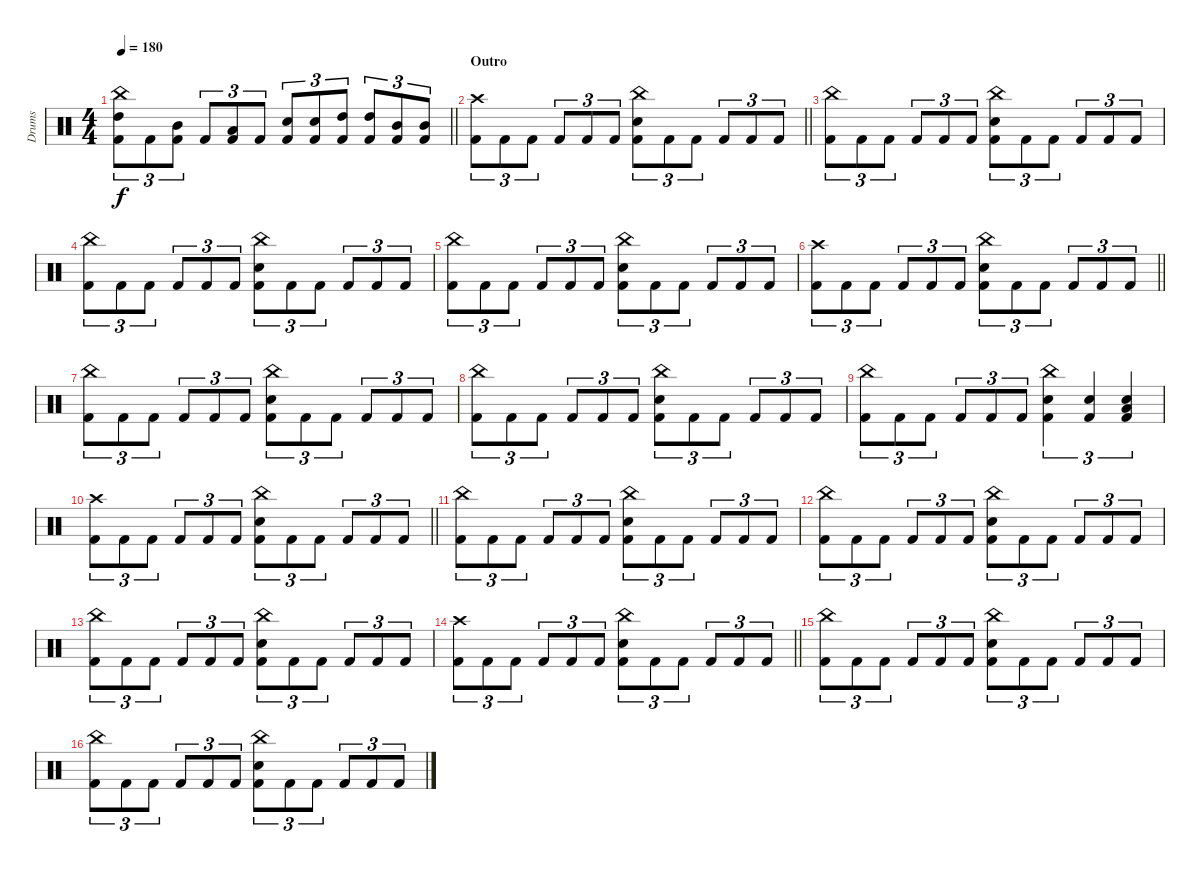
\track ("Drums" "Drums") {instrument percussion}
\staff {score}
\articulation defaults
\ts (4 4)
\tempo 180
\clef neutral
\barLineRight lightlight
\ks c
("China (hit)" "High Tom (hit)" "Kick (hit) 2").8{tu (3 2) dy f} "Kick (hit) 2".8{tu (3 2)} ("Mid Tom (hit)" "Kick (hit) 2").8{tu (3 2)} "Kick (hit) 2".8{tu (3 2)} ("Low Tom (hit)" "Kick (hit) 2").8{tu (3 2)} "Kick (hit) 2".8{tu (3 2)} ("Snare (hit) 2" "Kick (hit) 2").8{tu (3 2)} ("Snare (hit) 2" "Kick (hit) 2").8{tu (3 2)} ("High Tom (hit)" "Kick (hit) 2").8{tu (3 2)} ("High Tom (hit)" "Kick (hit) 2").8{tu (3 2)} ("Mid Tom (hit)" "Kick (hit) 2").8{tu (3 2)} ("Mid Tom (hit)" "Kick (hit) 2").8{tu (3 2)} |
\section ("" "Outro")
\barLineRight lightlight
("Crash high (hit)" "Kick (hit) 2").8{tu (3 2)} "Kick (hit) 2".8{tu (3 2)} "Kick (hit) 2".8{tu (3 2)} "Kick (hit) 2".8{tu (3 2)} "Kick (hit) 2".8{tu (3 2)} "Kick (hit) 2".8{tu (3 2)} ("China (hit)" "Snare (hit) 2" "Kick (hit) 2").8{tu (3 2)} "Kick (hit) 2".8{tu (3 2)} "Kick (hit) 2".8{tu (3 2)} "Kick (hit) 2".8{tu (3 2)} "Kick (hit) 2".8{tu (3 2)} "Kick (hit) 2".8{tu (3 2)} |
("China (hit)" "Kick (hit) 2").8{tu (3 2)} "Kick (hit) 2".8{tu (3 2)} "Kick (hit) 2".8{tu (3 2)} "Kick (hit) 2".8{tu (3 2)} "Kick (hit) 2".8{tu (3 2)} "Kick (hit) 2".8{tu (3 2)} ("China (hit)" "Snare (hit) 2" "Kick (hit) 2").8{tu (3 2)} "Kick (hit) 2".8{tu (3 2)} "Kick (hit) 2".8{tu (3 2)} "Kick (hit) 2".8{tu (3 2)} "Kick (hit) 2".8{tu (3 2)} "Kick (hit) 2".8{tu (3 2)} |
("China (hit)" "Kick (hit) 2").8{tu (3 2)} "Kick (hit) 2".8{tu (3 2)} "Kick (hit) 2".8{tu (3 2)} "Kick (hit) 2".8{tu (3 2)} "Kick (hit) 2".8{tu (3 2)} "Kick (hit) 2".8{tu (3 2)} ("China (hit)" "Snare (hit) 2" "Kick (hit) 2").8{tu (3 2)} "Kick (hit) 2".8{tu (3 2)} "Kick (hit) 2".8{tu (3 2)} "Kick (hit) 2".8{tu (3 2)} "Kick (hit) 2".8{tu (3 2)} "Kick (hit) 2".8{tu (3 2)} |
("China (hit)" "Kick (hit) 2").8{tu (3 2)} "Kick (hit) 2".8{tu (3 2)} "Kick (hit) 2".8{tu (3 2)} "Kick (hit) 2".8{tu (3 2)} "Kick (hit) 2".8{tu (3 2)} "Kick (hit) 2".8{tu (3 2)} ("China (hit)" "Snare (hit) 2" "Kick (hit) 2").8{tu (3 2)} "Kick (hit) 2".8{tu (3 2)} "Kick (hit) 2".8{tu (3 2)} "Kick (hit) 2".8{tu (3 2)} "Kick (hit) 2".8{tu (3 2)} "Kick (hit) 2".8{tu (3 2)} |
\barLineRight lightlight
("Crash high (hit)" "Kick (hit) 2").8{tu (3 2)} "Kick (hit) 2".8{tu (3 2)} "Kick (hit) 2".8{tu (3 2)} "Kick (hit) 2".8{tu (3 2)} "Kick (hit) 2".8{tu (3 2)} "Kick (hit) 2".8{tu (3 2)} ("China (hit)" "Snare (hit) 2" "Kick (hit) 2").8{tu (3 2)} "Kick (hit) 2".8{tu (3 2)} "Kick (hit) 2".8{tu (3 2)} "Kick (hit) 2".8{tu (3 2)} "Kick (hit) 2".8{tu (3 2)} "Kick (hit) 2".8{tu (3 2)} |
("China (hit)" "Kick (hit) 2").8{tu (3 2)} "Kick (hit) 2".8{tu (3 2)} "Kick (hit) 2".8{tu (3 2)} "Kick (hit) 2".8{tu (3 2)} "Kick (hit) 2".8{tu (3 2)} "Kick (hit) 2".8{tu (3 2)} ("China (hit)" "Snare (hit) 2" "Kick (hit) 2").8{tu (3 2)} "Kick (hit) 2".8{tu (3 2)} "Kick (hit) 2".8{tu (3 2)} "Kick (hit) 2".8{tu (3 2)} "Kick (hit) 2".8{tu (3 2)} "Kick (hit) 2".8{tu (3 2)} |
("China (hit)" "Kick (hit) 2").8{tu (3 2)} "Kick (hit) 2".8{tu (3 2)} "Kick (hit) 2".8{tu (3 2)} "Kick (hit) 2".8{tu (3 2)} "Kick (hit) 2".8{tu (3 2)} "Kick (hit) 2".8{tu (3 2)} ("China (hit)" "Snare (hit) 2" "Kick (hit) 2").8{tu (3 2)} "Kick (hit) 2".8{tu (3 2)} "Kick (hit) 2".8{tu (3 2)} "Kick (hit) 2".8{tu (3 2)} "Kick (hit) 2".8{tu (3 2)} "Kick (hit) 2".8{tu (3 2)} |
("China (hit)" "Kick (hit) 2").8{tu (3 2)} "Kick (hit) 2".8{tu (3 2)} "Kick (hit) 2".8{tu (3 2)} "Kick (hit) 2".8{tu (3 2)} "Kick (hit) 2".8{tu (3 2)} "Kick (hit) 2".8{tu (3 2)} ("China (hit)" "Snare (hit) 2" "Kick (hit) 2").4{tu (3 2)} ("Snare (hit) 2" "Kick (hit) 2").4{tu (3 2)} ("Low Tom (hit)" "Snare (hit) 2" "Kick (hit) 2").4{tu (3 2)} |
\barLineRight lightlight
("Crash high (hit)" "Kick (hit) 2").8{tu (3 2)} "Kick (hit) 2".8{tu (3 2)} "Kick (hit) 2".8{tu (3 2)} "Kick (hit) 2".8{tu (3 2)} "Kick (hit) 2".8{tu (3 2)} "Kick (hit) 2".8{tu (3 2)} ("China (hit)" "Snare (hit) 2" "Kick (hit) 2").8{tu (3 2)} "Kick (hit) 2".8{tu (3 2)} "Kick (hit) 2".8{tu (3 2)} "Kick (hit) 2".8{tu (3 2)} "Kick (hit) 2".8{tu (3 2)} "Kick (hit) 2".8{tu (3 2)} |
("China (hit)" "Kick (hit) 2").8{tu (3 2)} "Kick (hit) 2".8{tu (3 2)} "Kick (hit) 2".8{tu (3 2)} "Kick (hit) 2".8{tu (3 2)} "Kick (hit) 2".8{tu (3 2)} "Kick (hit) 2".8{tu (3 2)} ("China (hit)" "Snare (hit) 2" "Kick (hit) 2").8{tu (3 2)} "Kick (hit) 2".8{tu (3 2)} "Kick (hit) 2".8{tu (3 2)} "Kick (hit) 2".8{tu (3 2)} "Kick (hit) 2".8{tu (3 2)} "Kick (hit) 2".8{tu (3 2)} |
("China (hit)" "Kick (hit) 2").8{tu (3 2)} "Kick (hit) 2".8{tu (3 2)} "Kick (hit) 2".8{tu (3 2)} "Kick (hit) 2".8{tu (3 2)} "Kick (hit) 2".8{tu (3 2)} "Kick (hit) 2".8{tu (3 2)} ("China (hit)" "Snare (hit) 2" "Kick (hit) 2").8{tu (3 2)} "Kick (hit) 2".8{tu (3 2)} "Kick (hit) 2".8{tu (3 2)} "Kick (hit) 2".8{tu (3 2)} "Kick (hit) 2".8{tu (3 2)} "Kick (hit) 2".8{tu (3 2)} |
("China (hit)" "Kick (hit) 2").8{tu (3 2)} "Kick (hit) 2".8{tu (3 2)} "Kick (hit) 2".8{tu (3 2)} "Kick (hit) 2".8{tu (3 2)} "Kick (hit) 2".8{tu (3 2)} "Kick (hit) 2".8{tu (3 2)} ("China (hit)" "Snare (hit) 2" "Kick (hit) 2").8{tu (3 2)} "Kick (hit) 2".8{tu (3 2)} "Kick (hit) 2".8{tu (3 2)} "Kick (hit) 2".8{tu (3 2)} "Kick (hit) 2".8{tu (3 2)} "Kick (hit) 2".8{tu (3 2)} |
\barLineRight lightlight
("Crash high (hit)" "Kick (hit) 2").8{tu (3 2)} "Kick (hit) 2".8{tu (3 2)} "Kick (hit) 2".8{tu (3 2)} "Kick (hit) 2".8{tu (3 2)} "Kick (hit) 2".8{tu (3 2)} "Kick (hit) 2".8{tu (3 2)} ("China (hit)" "Snare (hit) 2" "Kick (hit) 2").8{tu (3 2)} "Kick (hit) 2".8{tu (3 2)} "Kick (hit) 2".8{tu (3 2)} "Kick (hit) 2".8{tu (3 2)} "Kick (hit) 2".8{tu (3 2)} "Kick (hit) 2".8{tu (3 2)} |
("China (hit)" "Kick (hit) 2").8{tu (3 2)} "Kick (hit) 2".8{tu (3 2)} "Kick (hit) 2".8{tu (3 2)} "Kick (hit) 2".8{tu (3 2)} "Kick (hit) 2".8{tu (3 2)} "Kick (hit) 2".8{tu (3 2)} ("China (hit)" "Snare (hit) 2" "Kick (hit) 2").8{tu (3 2)} "Kick (hit) 2".8{tu (3 2)} "Kick (hit) 2".8{tu (3 2)} "Kick (hit) 2".8{tu (3 2)} "Kick (hit) 2".8{tu (3 2)} "Kick (hit) 2".8{tu (3 2)} |
("China (hit)" "Kick (hit) 2").8{tu (3 2)} "Kick (hit) 2".8{tu (3 2)} "Kick (hit) 2".8{tu (3 2)} "Kick (hit) 2".8{tu (3 2)} "Kick (hit) 2".8{tu (3 2)} "Kick (hit) 2".8{tu (3 2)} ("China (hit)" "Snare (hit) 2" "Kick (hit) 2").8{tu (3 2)} "Kick (hit) 2".8{tu (3 2)} "Kick (hit) 2".8{tu (3 2)} "Kick (hit) 2".8{tu (3 2)} "Kick (hit) 2".8{tu (3 2)} "Kick (hit) 2".8{tu (3 2)}
